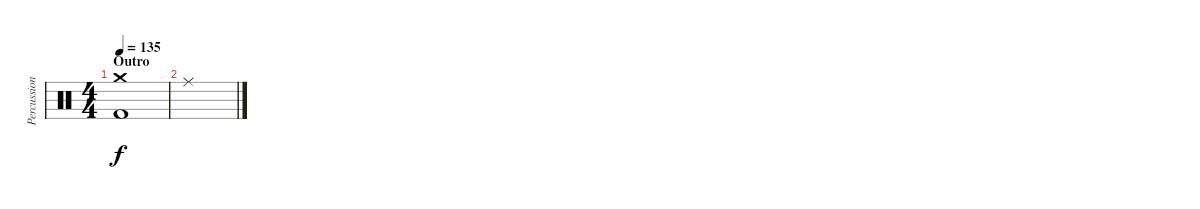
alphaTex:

\track ("Percussion" "Percussion") {instrument percussion}
\staff {score}
\articulation defaults
\ts (4 4)
\section ("" "Outro")
\tempo 135
\clef neutral
\ks c
("Kick (hit) 2" "Crash medium (hit)").1{dy f} |
"Ride (middle)".1
